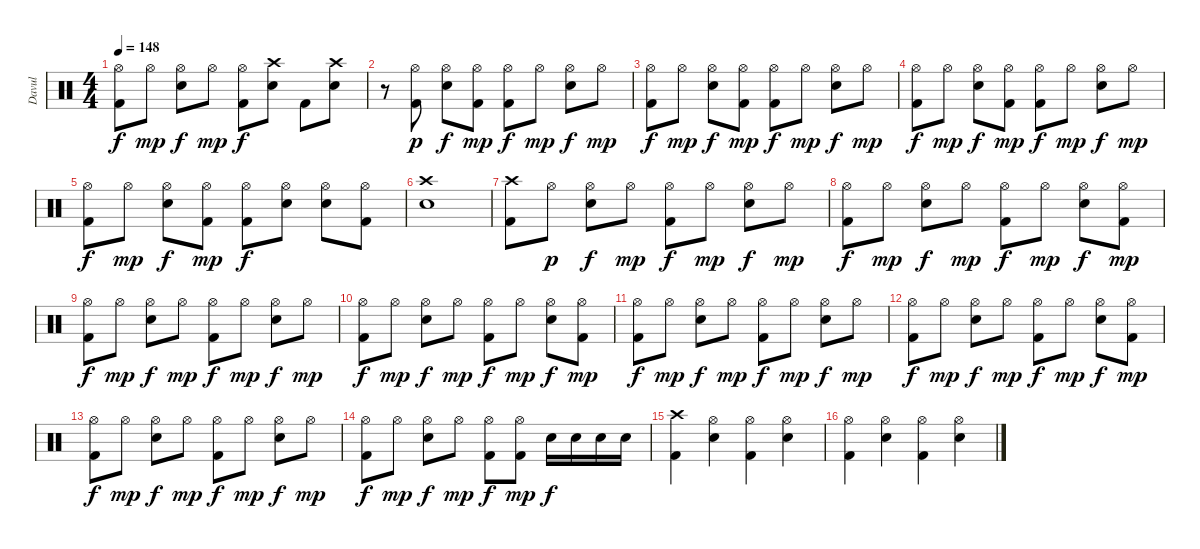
\track ("Davul" "Davul") {instrument percussion}
\staff {score}
\articulation defaults
\ts (4 4)
\tempo 148
\clef neutral
\ks c
("Hi-Hat (open)" "Kick (hit) 2").8{dy f} "Hi-Hat (open)".8{dy mp} ("Hi-Hat (open)" "Electric Snare (hit)").8{dy f} "Hi-Hat (open)".8{dy mp} ("Hi-Hat (open)" "Kick (hit) 2").8{dy f} ("Crash high (hit)" "Electric Snare (hit)").8 "Kick (hit) 2".8 ("Crash high (hit)" "Electric Snare (hit)").8 |
r.8 ("Hi-Hat (open)" "Kick (hit) 2").8{dy p} ("Hi-Hat (open)" "Electric Snare (hit)").8{dy f} ("Hi-Hat (open)" "Kick (hit) 2").8{dy mp} ("Hi-Hat (open)" "Kick (hit) 2").8{dy f} "Hi-Hat (open)".8{dy mp} ("Hi-Hat (open)" "Electric Snare (hit)").8{dy f} "Hi-Hat (open)".8{dy mp} |
("Hi-Hat (open)" "Kick (hit) 2").8{dy f} "Hi-Hat (open)".8{dy mp} ("Hi-Hat (open)" "Electric Snare (hit)").8{dy f} ("Hi-Hat (open)" "Kick (hit) 2").8{dy mp} ("Hi-Hat (open)" "Kick (hit) 2").8{dy f} "Hi-Hat (open)".8{dy mp} ("Hi-Hat (open)" "Electric Snare (hit)").8{dy f} "Hi-Hat (open)".8{dy mp} |
("Hi-Hat (open)" "Kick (hit) 2").8{dy f} "Hi-Hat (open)".8{dy mp} ("Hi-Hat (open)" "Electric Snare (hit)").8{dy f} ("Hi-Hat (open)" "Kick (hit) 2").8{dy mp} ("Hi-Hat (open)" "Kick (hit) 2").8{dy f} "Hi-Hat (open)".8{dy mp} ("Hi-Hat (open)" "Electric Snare (hit)").8{dy f} "Hi-Hat (open)".8{dy mp} |
("Hi-Hat (open)" "Kick (hit) 2").8{dy f} "Hi-Hat (open)".8{dy mp} ("Hi-Hat (open)" "Electric Snare (hit)").8{dy f} ("Hi-Hat (open)" "Kick (hit) 2").8{dy mp} ("Hi-Hat (open)" "Kick (hit) 2").8{dy f} ("Hi-Hat (open)" "Electric Snare (hit)").8 ("Hi-Hat (open)" "Electric Snare (hit)").8 ("Hi-Hat (open)" "Kick (hit) 2").8 |
("Crash high (hit)" "Electric Snare (hit)").1 |
("Crash high (hit)" "Kick (hit) 2").8 "Hi-Hat (open)".8{dy p} ("Hi-Hat (open)" "Electric Snare (hit)").8{dy f} "Hi-Hat (open)".8{dy mp} ("Hi-Hat (open)" "Kick (hit) 2").8{dy f} "Hi-Hat (open)".8{dy mp} ("Hi-Hat (open)" "Electric Snare (hit)").8{dy f} "Hi-Hat (open)".8{dy mp} |
("Hi-Hat (open)" "Kick (hit) 2").8{dy f} "Hi-Hat (open)".8{dy mp} ("Hi-Hat (open)" "Electric Snare (hit)").8{dy f} "Hi-Hat (open)".8{dy mp} ("Hi-Hat (open)" "Kick (hit) 2").8{dy f} "Hi-Hat (open)".8{dy mp} ("Hi-Hat (open)" "Electric Snare (hit)").8{dy f} ("Hi-Hat (open)" "Kick (hit) 2").8{dy mp} |
("Hi-Hat (open)" "Kick (hit) 2").8{dy f} "Hi-Hat (open)".8{dy mp} ("Hi-Hat (open)" "Electric Snare (hit)").8{dy f} "Hi-Hat (open)".8{dy mp} ("Hi-Hat (open)" "Kick (hit) 2").8{dy f} "Hi-Hat (open)".8{dy mp} ("Hi-Hat (open)" "Electric Snare (hit)").8{dy f} "Hi-Hat (open)".8{dy mp} |
("Hi-Hat (open)" "Kick (hit) 2").8{dy f} "Hi-Hat (open)".8{dy mp} ("Hi-Hat (open)" "Electric Snare (hit)").8{dy f} "Hi-Hat (open)".8{dy mp} ("Hi-Hat (open)" "Kick (hit) 2").8{dy f} "Hi-Hat (open)".8{dy mp} ("Hi-Hat (open)" "Electric Snare (hit)").8{dy f} ("Hi-Hat (open)" "Kick (hit) 2").8{dy mp} |
("Hi-Hat (open)" "Kick (hit) 2").8{dy f} "Hi-Hat (open)".8{dy mp} ("Hi-Hat (open)" "Electric Snare (hit)").8{dy f} "Hi-Hat (open)".8{dy mp} ("Hi-Hat (open)" "Kick (hit) 2").8{dy f} "Hi-Hat (open)".8{dy mp} ("Hi-Hat (open)" "Electric Snare (hit)").8{dy f} "Hi-Hat (open)".8{dy mp} |
("Hi-Hat (open)" "Kick (hit) 2").8{dy f} "Hi-Hat (open)".8{dy mp} ("Hi-Hat (open)" "Electric Snare (hit)").8{dy f} "Hi-Hat (open)".8{dy mp} ("Hi-Hat (open)" "Kick (hit) 2").8{dy f} "Hi-Hat (open)".8{dy mp} ("Hi-Hat (open)" "Electric Snare (hit)").8{dy f} ("Hi-Hat (open)" "Kick (hit) 2").8{dy mp} |
("Hi-Hat (open)" "Kick (hit) 2").8{dy f} "Hi-Hat (open)".8{dy mp} ("Hi-Hat (open)" "Electric Snare (hit)").8{dy f} "Hi-Hat (open)".8{dy mp} ("Hi-Hat (open)" "Kick (hit) 2").8{dy f} "Hi-Hat (open)".8{dy mp} ("Hi-Hat (open)" "Electric Snare (hit)").8{dy f} "Hi-Hat (open)".8{dy mp} |
("Hi-Hat (open)" "Kick (hit) 2").8{dy f} "Hi-Hat (open)".8{dy mp} ("Hi-Hat (open)" "Electric Snare (hit)").8{dy f} "Hi-Hat (open)".8{dy mp} ("Hi-Hat (open)" "Kick (hit) 2").8{dy f} ("Hi-Hat (open)" "Kick (hit) 2").8{dy mp} "Electric Snare (hit)".16{dy f} "Electric Snare (hit)".16 "Electric Snare (hit)".16 "Electric Snare (hit)".16 |
("Crash high (hit)" "Kick (hit) 2").4 ("Hi-Hat (open)" "Electric Snare (hit)").4 ("Hi-Hat (open)" "Kick (hit) 2").4 ("Hi-Hat (open)" "Electric Snare (hit)").4 |
("Hi-Hat (open)" "Kick (hit) 2").4 ("Hi-Hat (open)" "Electric Snare (hit)").4 ("Hi-Hat (open)" "Kick (hit) 2").4 ("Hi-Hat (open)" "Electric Snare (hit)").4
